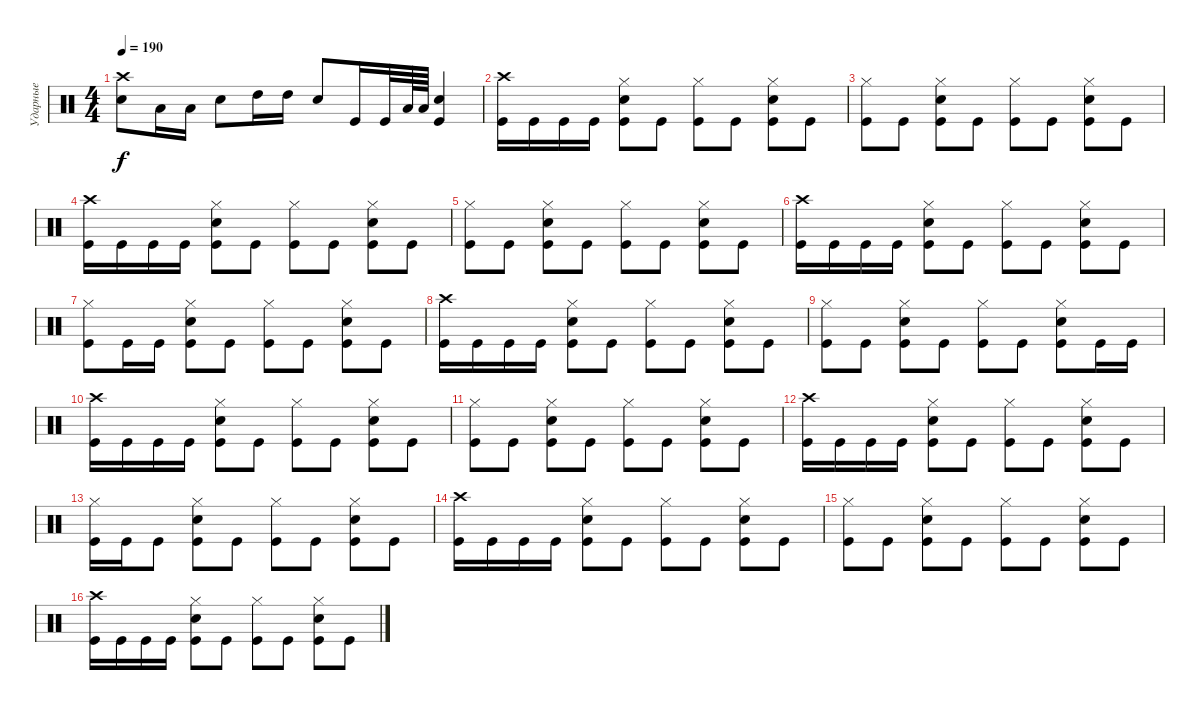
\track ("Ударные" "Ударные") {instrument percussion}
\staff {score}
\articulation defaults
\ts (4 4)
\tempo 190
\clef neutral
\ks c
("Crash high (hit)" "Electric Snare (hit)").8{dy f} "Low Tom (hit)".16 "Low Tom (hit)".16 "Electric Snare (hit)".8 "High Tom (hit)".16 "High Tom (hit)".16 "Electric Snare (hit)".8 "Kick (hit)".16 "Kick (hit)".32 "Low Tom (hit)".64 "Low Tom (hit)".64 ("Electric Snare (hit)" "Kick (hit)").4 |
("Crash high (hit)" "Kick (hit)").16 "Kick (hit)".16 "Kick (hit)".16 "Kick (hit)".16 ("Hi-Hat (closed)" "Electric Snare (hit)" "Kick (hit)").8 "Kick (hit)".8 ("Hi-Hat (closed)" "Kick (hit)").8 "Kick (hit)".8 ("Hi-Hat (closed)" "Electric Snare (hit)" "Kick (hit)").8 "Kick (hit)".8 |
("Hi-Hat (closed)" "Kick (hit)").8 "Kick (hit)".8 ("Hi-Hat (closed)" "Electric Snare (hit)" "Kick (hit)").8 "Kick (hit)".8 ("Hi-Hat (closed)" "Kick (hit)").8 "Kick (hit)".8 ("Hi-Hat (closed)" "Electric Snare (hit)" "Kick (hit)").8 "Kick (hit)".8 |
("Crash high (hit)" "Kick (hit)").16 "Kick (hit)".16 "Kick (hit)".16 "Kick (hit)".16 ("Hi-Hat (closed)" "Electric Snare (hit)" "Kick (hit)").8 "Kick (hit)".8 ("Hi-Hat (closed)" "Kick (hit)").8 "Kick (hit)".8 ("Hi-Hat (closed)" "Electric Snare (hit)" "Kick (hit)").8 "Kick (hit)".8 |
("Hi-Hat (closed)" "Kick (hit)").8 "Kick (hit)".8 ("Hi-Hat (closed)" "Electric Snare (hit)" "Kick (hit)").8 "Kick (hit)".8 ("Hi-Hat (closed)" "Kick (hit)").8 "Kick (hit)".8 ("Hi-Hat (closed)" "Electric Snare (hit)" "Kick (hit)").8 "Kick (hit)".8 |
("Crash high (hit)" "Kick (hit)").16 "Kick (hit)".16 "Kick (hit)".16 "Kick (hit)".16 ("Hi-Hat (closed)" "Electric Snare (hit)" "Kick (hit)").8 "Kick (hit)".8 ("Hi-Hat (closed)" "Kick (hit)").8 "Kick (hit)".8 ("Hi-Hat (closed)" "Electric Snare (hit)" "Kick (hit)").8 "Kick (hit)".8 |
("Hi-Hat (closed)" "Kick (hit)").8 "Kick (hit)".16 "Kick (hit)".16 ("Hi-Hat (closed)" "Electric Snare (hit)" "Kick (hit)").8 "Kick (hit)".8 ("Hi-Hat (closed)" "Kick (hit)").8 "Kick (hit)".8 ("Hi-Hat (closed)" "Electric Snare (hit)" "Kick (hit)").8 "Kick (hit)".8 |
("Crash high (hit)" "Kick (hit)").16 "Kick (hit)".16 "Kick (hit)".16 "Kick (hit)".16 ("Hi-Hat (closed)" "Electric Snare (hit)" "Kick (hit)").8 "Kick (hit)".8 ("Hi-Hat (closed)" "Kick (hit)").8 "Kick (hit)".8 ("Hi-Hat (closed)" "Electric Snare (hit)" "Kick (hit)").8 "Kick (hit)".8 |
("Hi-Hat (closed)" "Kick (hit)").8 "Kick (hit)".8 ("Hi-Hat (closed)" "Electric Snare (hit)" "Kick (hit)").8 "Kick (hit)".8 ("Hi-Hat (closed)" "Kick (hit)").8 "Kick (hit)".8 ("Hi-Hat (closed)" "Electric Snare (hit)" "Kick (hit)").8 "Kick (hit)".16 "Kick (hit)".16 |
("Crash high (hit)" "Kick (hit)").16 "Kick (hit)".16 "Kick (hit)".16 "Kick (hit)".16 ("Hi-Hat (closed)" "Electric Snare (hit)" "Kick (hit)").8 "Kick (hit)".8 ("Hi-Hat (closed)" "Kick (hit)").8 "Kick (hit)".8 ("Hi-Hat (closed)" "Electric Snare (hit)" "Kick (hit)").8 "Kick (hit)".8 |
("Hi-Hat (closed)" "Kick (hit)").8 "Kick (hit)".8 ("Hi-Hat (closed)" "Electric Snare (hit)" "Kick (hit)").8 "Kick (hit)".8 ("Hi-Hat (closed)" "Kick (hit)").8 "Kick (hit)".8 ("Hi-Hat (closed)" "Electric Snare (hit)" "Kick (hit)").8 "Kick (hit)".8 |
("Crash high (hit)" "Kick (hit)").16 "Kick (hit)".16 "Kick (hit)".16 "Kick (hit)".16 ("Hi-Hat (closed)" "Electric Snare (hit)" "Kick (hit)").8 "Kick (hit)".8 ("Hi-Hat (closed)" "Kick (hit)").8 "Kick (hit)".8 ("Hi-Hat (closed)" "Electric Snare (hit)" "Kick (hit)").8 "Kick (hit)".8 |
("Hi-Hat (closed)" "Kick (hit)").16 "Kick (hit)".16 "Kick (hit)".8 ("Hi-Hat (closed)" "Electric Snare (hit)" "Kick (hit)").8 "Kick (hit)".8 ("Hi-Hat (closed)" "Kick (hit)").8 "Kick (hit)".8 ("Hi-Hat (closed)" "Electric Snare (hit)" "Kick (hit)").8 "Kick (hit)".8 |
("Crash high (hit)" "Kick (hit)").16 "Kick (hit)".16 "Kick (hit)".16 "Kick (hit)".16 ("Hi-Hat (closed)" "Electric Snare (hit)" "Kick (hit)").8 "Kick (hit)".8 ("Hi-Hat (closed)" "Kick (hit)").8 "Kick (hit)".8 ("Hi-Hat (closed)" "Electric Snare (hit)" "Kick (hit)").8 "Kick (hit)".8 |
("Hi-Hat (closed)" "Kick (hit)").8 "Kick (hit)".8 ("Hi-Hat (closed)" "Electric Snare (hit)" "Kick (hit)").8 "Kick (hit)".8 ("Hi-Hat (closed)" "Kick (hit)").8 "Kick (hit)".8 ("Hi-Hat (closed)" "Electric Snare (hit)" "Kick (hit)").8 "Kick (hit)".8 |
("Crash high (hit)" "Kick (hit)").16 "Kick (hit)".16 "Kick (hit)".16 "Kick (hit)".16 ("Hi-Hat (closed)" "Electric Snare (hit)" "Kick (hit)").8 "Kick (hit)".8 ("Hi-Hat (closed)" "Kick (hit)").8 "Kick (hit)".8 ("Hi-Hat (closed)" "Electric Snare (hit)" "Kick (hit)").8 "Kick (hit)".8
